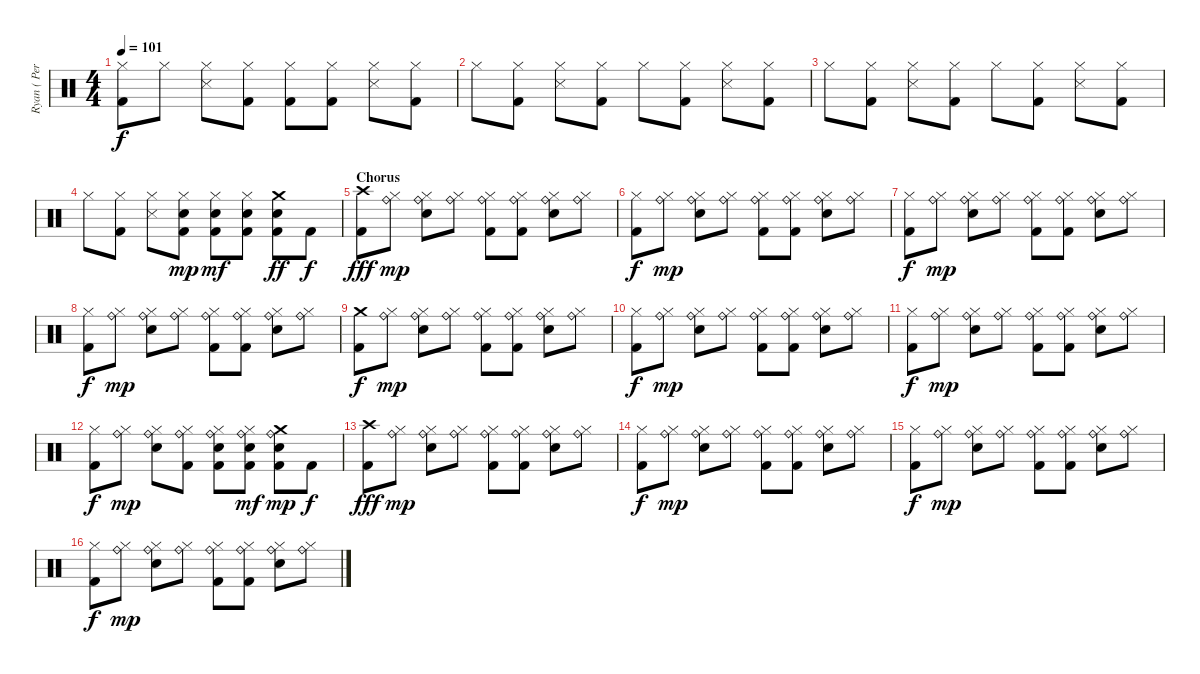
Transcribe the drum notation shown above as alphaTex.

\track ("Ryan ( Percussion )" "Ryan ( Per") {instrument percussion}
\staff {score}
\articulation defaults
\ts (4 4)
\tempo 101
\clef neutral
\ks c
("Hi-Hat (closed)" "Kick (hit) 2").8{dy f} "Hi-Hat (closed)".8 ("Hi-Hat (closed)" "Snare (side stick) 3").8 ("Hi-Hat (closed)" "Kick (hit) 2").8 ("Hi-Hat (closed)" "Kick (hit) 2").8 ("Hi-Hat (closed)" "Kick (hit) 2").8 ("Hi-Hat (closed)" "Snare (side stick) 3").8 ("Hi-Hat (closed)" "Kick (hit) 2").8 |
"Hi-Hat (closed)".8 ("Hi-Hat (closed)" "Kick (hit) 2").8 ("Hi-Hat (closed)" "Snare (side stick) 3").8 ("Hi-Hat (closed)" "Kick (hit) 2").8 "Hi-Hat (closed)".8 ("Hi-Hat (closed)" "Kick (hit) 2").8 ("Hi-Hat (closed)" "Snare (side stick) 3").8 ("Hi-Hat (closed)" "Kick (hit) 2").8 |
"Hi-Hat (closed)".8 ("Hi-Hat (closed)" "Kick (hit) 2").8 ("Hi-Hat (closed)" "Snare (side stick) 3").8 ("Hi-Hat (closed)" "Kick (hit) 2").8 "Hi-Hat (closed)".8 ("Hi-Hat (closed)" "Kick (hit) 2").8 ("Hi-Hat (closed)" "Snare (side stick) 3").8 ("Hi-Hat (closed)" "Kick (hit) 2").8 |
"Hi-Hat (closed)".8 ("Hi-Hat (closed)" "Kick (hit) 2").8 ("Hi-Hat (closed)" "Snare (side stick) 3").8 ("Hi-Hat (closed)" "Kick (hit) 2" "Snare (hit) 2").8{dy mp} ("Hi-Hat (closed)" "Kick (hit) 2" "Snare (hit) 2").8{dy mf} ("Hi-Hat (closed)" "Kick (hit) 2" "Snare (hit) 2").8 ("Crash medium (hit)" "Kick (hit) 2" "Snare (hit) 2").8{dy ff} "Kick (hit) 2".8{dy f} |
\section ("" "Chorus")
("Crash high (hit)" "Kick (hit) 2").8{dy fff} ("Hi-Hat (closed)" "Ride (bell)").8{dy mp} ("Hi-Hat (closed)" "Snare (hit) 2" "Ride (bell)").8 ("Hi-Hat (closed)" "Ride (bell)").8 ("Hi-Hat (closed)" "Kick (hit) 2" "Ride (bell)").8 ("Hi-Hat (closed)" "Kick (hit) 2" "Ride (bell)").8 ("Hi-Hat (closed)" "Snare (hit) 2" "Ride (bell)").8 ("Hi-Hat (closed)" "Ride (bell)").8 |
("Hi-Hat (closed)" "Kick (hit) 2").8{dy f} ("Hi-Hat (closed)" "Ride (bell)").8{dy mp} ("Hi-Hat (closed)" "Snare (hit) 2" "Ride (bell)").8 ("Hi-Hat (closed)" "Ride (bell)").8 ("Hi-Hat (closed)" "Kick (hit) 2" "Ride (bell)").8 ("Hi-Hat (closed)" "Kick (hit) 2" "Ride (bell)").8 ("Hi-Hat (closed)" "Snare (hit) 2" "Ride (bell)").8 ("Hi-Hat (closed)" "Ride (bell)").8 |
("Hi-Hat (closed)" "Kick (hit) 2").8{dy f} ("Hi-Hat (closed)" "Ride (bell)").8{dy mp} ("Hi-Hat (closed)" "Snare (hit) 2" "Ride (bell)").8 ("Hi-Hat (closed)" "Ride (bell)").8 ("Hi-Hat (closed)" "Kick (hit) 2" "Ride (bell)").8 ("Hi-Hat (closed)" "Kick (hit) 2" "Ride (bell)").8 ("Hi-Hat (closed)" "Snare (hit) 2" "Ride (bell)").8 ("Hi-Hat (closed)" "Ride (bell)").8 |
("Hi-Hat (closed)" "Kick (hit) 2").8{dy f} ("Hi-Hat (closed)" "Ride (bell)").8{dy mp} ("Hi-Hat (closed)" "Snare (hit) 2" "Ride (bell)").8 ("Hi-Hat (closed)" "Ride (bell)").8 ("Hi-Hat (closed)" "Kick (hit) 2" "Ride (bell)").8 ("Hi-Hat (closed)" "Kick (hit) 2" "Ride (bell)").8 ("Hi-Hat (closed)" "Snare (hit) 2" "Ride (bell)").8 ("Hi-Hat (closed)" "Ride (bell)").8 |
("Crash medium (hit)" "Kick (hit) 2").8{dy f} ("Hi-Hat (closed)" "Ride (bell)").8{dy mp} ("Hi-Hat (closed)" "Snare (hit) 2" "Ride (bell)").8 ("Hi-Hat (closed)" "Ride (bell)").8 ("Hi-Hat (closed)" "Kick (hit) 2" "Ride (bell)").8 ("Hi-Hat (closed)" "Kick (hit) 2" "Ride (bell)").8 ("Hi-Hat (closed)" "Snare (hit) 2" "Ride (bell)").8 ("Hi-Hat (closed)" "Ride (bell)").8 |
("Hi-Hat (closed)" "Kick (hit) 2").8{dy f} ("Hi-Hat (closed)" "Ride (bell)").8{dy mp} ("Hi-Hat (closed)" "Snare (hit) 2" "Ride (bell)").8 ("Hi-Hat (closed)" "Ride (bell)").8 ("Hi-Hat (closed)" "Kick (hit) 2" "Ride (bell)").8 ("Hi-Hat (closed)" "Kick (hit) 2" "Ride (bell)").8 ("Hi-Hat (closed)" "Snare (hit) 2" "Ride (bell)").8 ("Hi-Hat (closed)" "Ride (bell)").8 |
("Hi-Hat (closed)" "Kick (hit) 2").8{dy f} ("Hi-Hat (closed)" "Ride (bell)").8{dy mp} ("Hi-Hat (closed)" "Snare (hit) 2" "Ride (bell)").8 ("Hi-Hat (closed)" "Ride (bell)").8 ("Hi-Hat (closed)" "Kick (hit) 2" "Ride (bell)").8 ("Hi-Hat (closed)" "Kick (hit) 2" "Ride (bell)").8 ("Hi-Hat (closed)" "Snare (hit) 2" "Ride (bell)").8 ("Hi-Hat (closed)" "Ride (bell)").8 |
("Hi-Hat (closed)" "Kick (hit) 2").8{dy f} ("Hi-Hat (closed)" "Ride (bell)").8{dy mp} ("Hi-Hat (closed)" "Snare (hit) 2" "Ride (bell)").8 ("Hi-Hat (closed)" "Kick (hit) 2" "Ride (bell)").8 ("Hi-Hat (closed)" "Kick (hit) 2" "Snare (hit) 2" "Ride (bell)").8 ("Hi-Hat (closed)" "Kick (hit) 2" "Snare (hit) 2" "Ride (bell)").8{dy mf} ("Crash medium (hit)" "Kick (hit) 2" "Snare (hit) 2" "Ride (bell)").8{dy mp} "Kick (hit) 2".8{dy f} |
("Crash high (hit)" "Kick (hit) 2").8{dy fff} ("Hi-Hat (closed)" "Ride (bell)").8{dy mp} ("Hi-Hat (closed)" "Snare (hit) 2" "Ride (bell)").8 ("Hi-Hat (closed)" "Ride (bell)").8 ("Hi-Hat (closed)" "Kick (hit) 2" "Ride (bell)").8 ("Hi-Hat (closed)" "Kick (hit) 2" "Ride (bell)").8 ("Hi-Hat (closed)" "Snare (hit) 2" "Ride (bell)").8 ("Hi-Hat (closed)" "Ride (bell)").8 |
("Hi-Hat (closed)" "Kick (hit) 2").8{dy f} ("Hi-Hat (closed)" "Ride (bell)").8{dy mp} ("Hi-Hat (closed)" "Snare (hit) 2" "Ride (bell)").8 ("Hi-Hat (closed)" "Ride (bell)").8 ("Hi-Hat (closed)" "Kick (hit) 2" "Ride (bell)").8 ("Hi-Hat (closed)" "Kick (hit) 2" "Ride (bell)").8 ("Hi-Hat (closed)" "Snare (hit) 2" "Ride (bell)").8 ("Hi-Hat (closed)" "Ride (bell)").8 |
("Hi-Hat (closed)" "Kick (hit) 2").8{dy f} ("Hi-Hat (closed)" "Ride (bell)").8{dy mp} ("Hi-Hat (closed)" "Snare (hit) 2" "Ride (bell)").8 ("Hi-Hat (closed)" "Ride (bell)").8 ("Hi-Hat (closed)" "Kick (hit) 2" "Ride (bell)").8 ("Hi-Hat (closed)" "Kick (hit) 2" "Ride (bell)").8 ("Hi-Hat (closed)" "Snare (hit) 2" "Ride (bell)").8 ("Hi-Hat (closed)" "Ride (bell)").8 |
("Hi-Hat (closed)" "Kick (hit) 2").8{dy f} ("Hi-Hat (closed)" "Ride (bell)").8{dy mp} ("Hi-Hat (closed)" "Snare (hit) 2" "Ride (bell)").8 ("Hi-Hat (closed)" "Ride (bell)").8 ("Hi-Hat (closed)" "Kick (hit) 2" "Ride (bell)").8 ("Hi-Hat (closed)" "Kick (hit) 2" "Ride (bell)").8 ("Hi-Hat (closed)" "Snare (hit) 2" "Ride (bell)").8 ("Hi-Hat (closed)" "Ride (bell)").8
